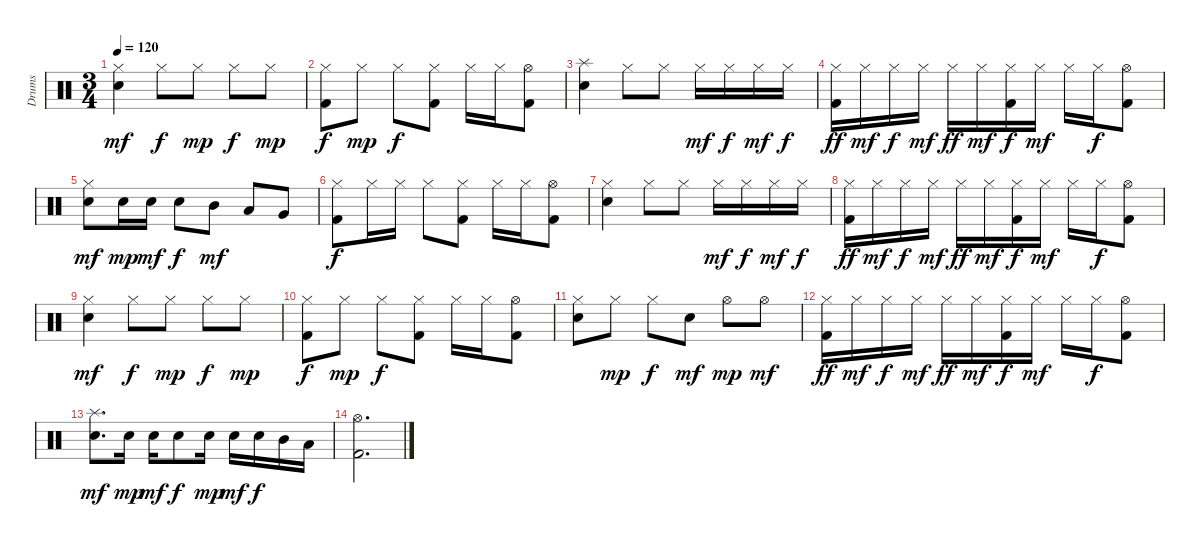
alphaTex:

\track ("Drums" "Drums") {instrument percussion}
\staff {score}
\articulation defaults
\ts (3 4)
\tempo 120
\clef neutral
\ks c
("Hi-Hat (closed)" "Electric Snare (hit)").4{dy mf} "Hi-Hat (closed)".8{dy f} "Hi-Hat (closed)".8{dy mp} "Hi-Hat (closed)".8{dy f} "Hi-Hat (closed)".8{dy mp} |
("Hi-Hat (closed)" "Kick (hit) 2").8{dy f} "Hi-Hat (closed)".8{dy mp} "Hi-Hat (closed)".8{dy f} ("Hi-Hat (closed)" "Kick (hit) 2").8 "Hi-Hat (closed)".16 "Hi-Hat (closed)".16 ("Hi-Hat (open)" "Kick (hit) 2").8 |
("Splash (hit)" "Electric Snare (hit)").4 "Hi-Hat (closed)".8 "Hi-Hat (closed)".8 "Hi-Hat (closed)".16{dy mf} "Hi-Hat (closed)".16{dy f} "Hi-Hat (closed)".16{dy mf} "Hi-Hat (closed)".16{dy f} |
("Hi-Hat (closed)" "Kick (hit) 2").16{dy ff} "Hi-Hat (closed)".16{dy mf} "Hi-Hat (closed)".16{dy f} "Hi-Hat (closed)".16{dy mf} "Hi-Hat (closed)".16{dy ff} "Hi-Hat (closed)".16{dy mf} ("Hi-Hat (closed)" "Kick (hit) 2").16{dy f} "Hi-Hat (closed)".16{dy mf} "Hi-Hat (closed)".16 "Hi-Hat (closed)".16{dy f} ("Hi-Hat (open)" "Kick (hit) 2").8 |
("Hi-Hat (closed)" "Electric Snare (hit)").8{dy mf} "Electric Snare (hit)".16{dy mp} "Electric Snare (hit)".16{dy mf} "Electric Snare (hit)".8{dy f} "Mid Tom (hit)".8{dy mf} "Low Tom (hit)".8 "Very Low Tom (hit)".8 |
("Hi-Hat (closed)" "Kick (hit) 2").8{dy f} "Hi-Hat (closed)".16 "Hi-Hat (closed)".16 "Hi-Hat (closed)".8 ("Hi-Hat (closed)" "Kick (hit) 2").8 "Hi-Hat (closed)".16 "Hi-Hat (closed)".16 ("Hi-Hat (open)" "Kick (hit) 2").8 |
("Hi-Hat (closed)" "Electric Snare (hit)").4 "Hi-Hat (closed)".8 "Hi-Hat (closed)".8 "Hi-Hat (closed)".16{dy mf} "Hi-Hat (closed)".16{dy f} "Hi-Hat (closed)".16{dy mf} "Hi-Hat (closed)".16{dy f} |
("Hi-Hat (closed)" "Kick (hit) 2").16{dy ff} "Hi-Hat (closed)".16{dy mf} "Hi-Hat (closed)".16{dy f} "Hi-Hat (closed)".16{dy mf} "Hi-Hat (closed)".16{dy ff} "Hi-Hat (closed)".16{dy mf} ("Hi-Hat (closed)" "Kick (hit) 2").16{dy f} "Hi-Hat (closed)".16{dy mf} "Hi-Hat (closed)".16 "Hi-Hat (closed)".16{dy f} ("Hi-Hat (open)" "Kick (hit) 2").8 |
("Hi-Hat (closed)" "Electric Snare (hit)").4{dy mf} "Hi-Hat (closed)".8{dy f} "Hi-Hat (closed)".8{dy mp} "Hi-Hat (closed)".8{dy f} "Hi-Hat (closed)".8{dy mp} |
("Hi-Hat (closed)" "Kick (hit) 2").8{dy f} "Hi-Hat (closed)".8{dy mp} "Hi-Hat (closed)".8{dy f} ("Hi-Hat (closed)" "Kick (hit) 2").8 "Hi-Hat (closed)".16 "Hi-Hat (closed)".16 ("Hi-Hat (open)" "Kick (hit) 2").8 |
("Hi-Hat (closed)" "Electric Snare (hit)").8 "Hi-Hat (closed)".8{dy mp} "Hi-Hat (closed)".8{dy f} "Electric Snare (hit)".8{dy mf} "Hi-Hat (open)".8{dy mp} "Hi-Hat (open)".8{dy mf} |
("Hi-Hat (closed)" "Kick (hit) 2").16{dy ff} "Hi-Hat (closed)".16{dy mf} "Hi-Hat (closed)".16{dy f} "Hi-Hat (closed)".16{dy mf} "Hi-Hat (closed)".16{dy ff} "Hi-Hat (closed)".16{dy mf} ("Hi-Hat (closed)" "Kick (hit) 2").16{dy f} "Hi-Hat (closed)".16{dy mf} "Hi-Hat (closed)".16 "Hi-Hat (closed)".16{dy f} ("Hi-Hat (open)" "Kick (hit) 2").8 |
("Splash (hit)" "Electric Snare (hit)").8{d dy mf} "Electric Snare (hit)".16{dy mp} "Electric Snare (hit)".16{dy mf} "Electric Snare (hit)".8{dy f} "Electric Snare (hit)".16{dy mp} "Electric Snare (hit)".16{dy mf} "Electric Snare (hit)".16{dy f} "Mid Tom (hit)".16 "Low Tom (hit)".16 |
("Hi-Hat (open)" "Kick (hit) 2").2{d}
